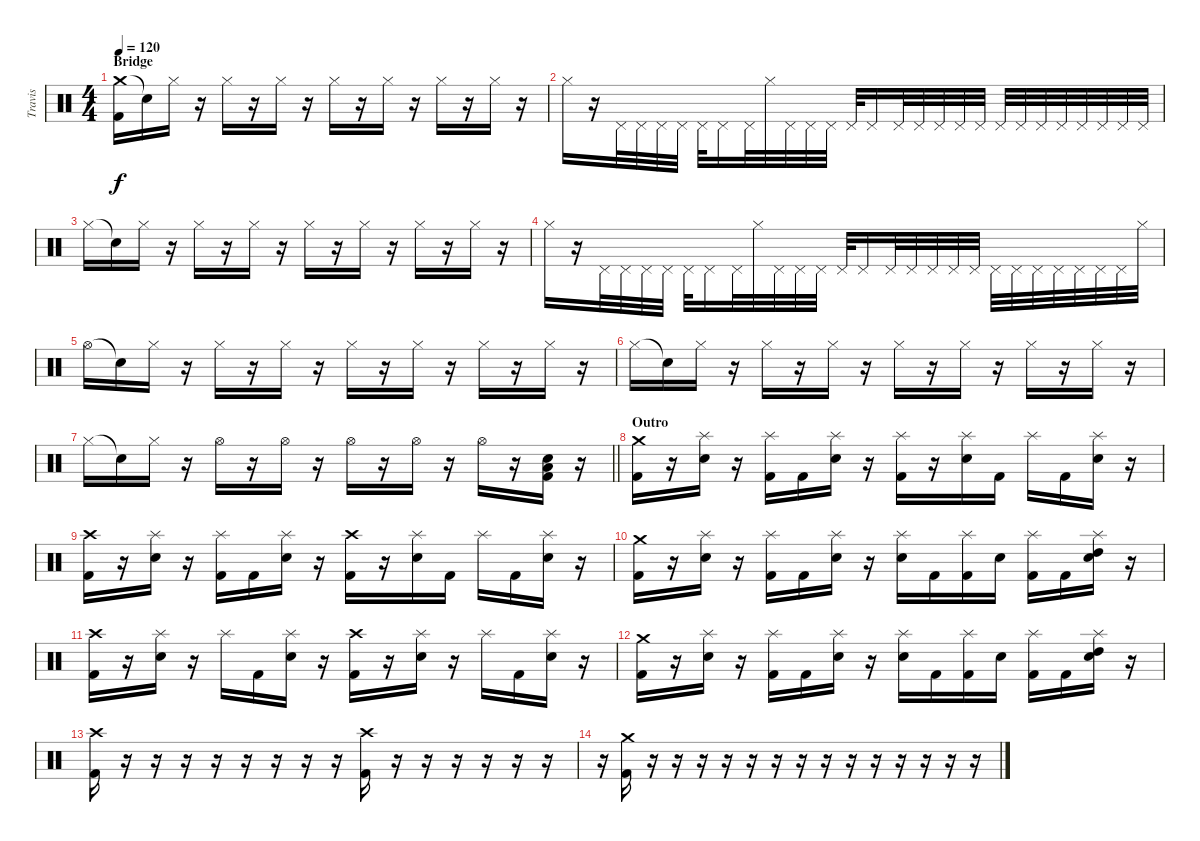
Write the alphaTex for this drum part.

\track ("Travis" "Travis") {instrument percussion}
\staff {score}
\articulation defaults
\ts (4 4)
\section ("" "Bridge")
\tempo 120
\clef neutral
\ks c
("Crash medium (hit)" "Kick (hit) 2").16{dy f} "Snare (hit)"{t}.16 "Hi-Hat (closed)".16 r.16 "Hi-Hat (closed)".16 r.16 "Hi-Hat (closed)".16 r.16 "Hi-Hat (closed)".16 r.16 "Hi-Hat (closed)".16 r.16 "Hi-Hat (closed)".16 r.16 "Hi-Hat (closed)".16 r.16 |
"Hi-Hat (closed)".16 r.16 "Pedal Hi-Hat (hit)".32 "Pedal Hi-Hat (hit)".32 "Pedal Hi-Hat (hit)".32 "Pedal Hi-Hat (hit)".32 "Pedal Hi-Hat (hit)".32 "Pedal Hi-Hat (hit)".16 "Pedal Hi-Hat (hit)".32 "Hi-Hat (closed)".32 "Pedal Hi-Hat (hit)".32 "Pedal Hi-Hat (hit)".32 "Pedal Hi-Hat (hit)".32 "Pedal Hi-Hat (hit)".32 "Pedal Hi-Hat (hit)".16 "Pedal Hi-Hat (hit)".32 "Pedal Hi-Hat (hit)".32 "Pedal Hi-Hat (hit)".32 "Pedal Hi-Hat (hit)".32 "Pedal Hi-Hat (hit)".32 "Pedal Hi-Hat (hit)".32 "Pedal Hi-Hat (hit)".32 "Pedal Hi-Hat (hit)".32 "Pedal Hi-Hat (hit)".32 "Pedal Hi-Hat (hit)".32 "Pedal Hi-Hat (hit)".32 "Pedal Hi-Hat (hit)".32 "Pedal Hi-Hat (hit)".32 |
"Hi-Hat (closed)".16 "Snare (hit)"{t}.16 "Hi-Hat (closed)".16 r.16 "Hi-Hat (closed)".16 r.16 "Hi-Hat (closed)".16 r.16 "Hi-Hat (closed)".16 r.16 "Hi-Hat (closed)".16 r.16 "Hi-Hat (closed)".16 r.16 "Hi-Hat (closed)".16 r.16 |
"Hi-Hat (closed)".16 r.16 "Pedal Hi-Hat (hit)".32 "Pedal Hi-Hat (hit)".32 "Pedal Hi-Hat (hit)".32 "Pedal Hi-Hat (hit)".32 "Pedal Hi-Hat (hit)".32 "Pedal Hi-Hat (hit)".16 "Pedal Hi-Hat (hit)".32 "Hi-Hat (closed)".32 "Pedal Hi-Hat (hit)".32 "Pedal Hi-Hat (hit)".32 "Pedal Hi-Hat (hit)".32 "Pedal Hi-Hat (hit)".32 "Pedal Hi-Hat (hit)".16 "Pedal Hi-Hat (hit)".32 "Pedal Hi-Hat (hit)".32 "Pedal Hi-Hat (hit)".32 "Pedal Hi-Hat (hit)".32 "Pedal Hi-Hat (hit)".32 "Pedal Hi-Hat (hit)".32 "Pedal Hi-Hat (hit)".32 "Pedal Hi-Hat (hit)".32 "Pedal Hi-Hat (hit)".32 "Pedal Hi-Hat (hit)".32 "Pedal Hi-Hat (hit)".32 "Pedal Hi-Hat (hit)".32 "Hi-Hat (closed)".32 |
"Hi-Hat (open)".16 "Snare (hit)"{t}.16 "Hi-Hat (closed)".16 r.16 "Hi-Hat (closed)".16 r.16 "Hi-Hat (closed)".16 r.16 "Hi-Hat (closed)".16 r.16 "Hi-Hat (closed)".16 r.16 "Hi-Hat (closed)".16 r.16 "Hi-Hat (closed)".16 r.16 |
"Hi-Hat (closed)".16 "Snare (hit)"{t}.16 "Hi-Hat (closed)".16 r.16 "Hi-Hat (closed)".16 r.16 "Hi-Hat (closed)".16 r.16 "Hi-Hat (closed)".16 r.16 "Hi-Hat (closed)".16 r.16 "Hi-Hat (closed)".16 r.16 "Hi-Hat (closed)".16 r.16 |
\barLineRight lightlight "Hi-Hat (closed)".16 "Snare (hit)"{t}.16 "Hi-Hat (closed)".16
r.16 "Hi-Hat (open)".16 r.16 "Hi-Hat (open)".16 r.16 "Hi-Hat (open)".16 r.16 "Hi-Hat (open)".16 r.16 "Hi-Hat (open)".16 r.16 ("Low Floor Tom (hit)" "Electric Snare (hit)" "Kick (hit) 2").16 r.16 |
\section ("" "Outro")
("Crash medium (hit)" "Kick (hit) 2").16 r.16 ("Splash (hit)" "Electric Snare (hit)").16 r.16 ("Splash (hit)" "Kick (hit) 2").16 "Kick (hit) 2".16 ("Splash (hit)" "Electric Snare (hit)").16 r.16 ("Splash (hit)" "Kick (hit) 2").16 r.16 ("Splash (hit)" "Electric Snare (hit)").16 "Kick (hit) 2".16 "Splash (hit)".16 "Kick (hit) 2".16 ("Splash (hit)" "Electric Snare (hit)").16 r.16 |
("Crash high (hit)" "Kick (hit) 2").16 r.16 ("Splash (hit)" "Electric Snare (hit)").16 r.16 ("Splash (hit)" "Kick (hit) 2").16 "Kick (hit) 2".16 ("Splash (hit)" "Electric Snare (hit)").16 r.16 ("Crash high (hit)" "Kick (hit) 2").16 r.16 ("Splash (hit)" "Electric Snare (hit)").16 "Kick (hit) 2".16 "Splash (hit)".16 "Kick (hit) 2".16 ("Splash (hit)" "Electric Snare (hit)").16 r.16 |
("Crash medium (hit)" "Kick (hit) 2").16 r.16 ("Splash (hit)" "Electric Snare (hit)").16 r.16 ("Splash (hit)" "Kick (hit) 2").16 "Kick (hit) 2".16 ("Splash (hit)" "Electric Snare (hit)").16 r.16 ("Splash (hit)" "Electric Snare (hit)").16 "Kick (hit) 2".16 ("Splash (hit)" "Kick (hit) 2").16 "Electric Snare (hit)".16 ("Splash (hit)" "Kick (hit) 2").16 "Kick (hit) 2".16 ("Splash (hit)" "High Tom (hit)" "Electric Snare (hit)").16 r.16 |
("Crash high (hit)" "Kick (hit) 2").16 r.16 ("Splash (hit)" "Electric Snare (hit)").16 r.16 "Splash (hit)".16 "Kick (hit) 2".16 ("Splash (hit)" "Electric Snare (hit)").16 r.16 ("Crash high (hit)" "Kick (hit) 2").16 r.16 ("Splash (hit)" "Electric Snare (hit)").16 r.16 "Splash (hit)".16 "Kick (hit) 2".16 ("Splash (hit)" "Electric Snare (hit)").16 r.16 |
("Crash medium (hit)" "Kick (hit) 2").16 r.16 ("Splash (hit)" "Electric Snare (hit)").16 r.16 ("Splash (hit)" "Kick (hit) 2").16 "Kick (hit) 2".16 ("Splash (hit)" "Electric Snare (hit)").16 r.16 ("Splash (hit)" "Electric Snare (hit)").16 "Kick (hit) 2".16 ("Splash (hit)" "Kick (hit) 2").16 "Electric Snare (hit)".16 ("Splash (hit)" "Kick (hit) 2").16 "Kick (hit) 2".16 ("Splash (hit)" "High Tom (hit)" "Electric Snare (hit)").16 r.16 |
("Crash high (hit)" "Kick (hit) 2").16 r.16 r.16 r.16 r.16 r.16 r.16 r.16 r.16 ("Crash high (hit)" "Kick (hit) 2").16 r.16 r.16 r.16 r.16 r.16 r.16 |
r.16 ("Crash medium (hit)" "Kick (hit) 2").16 r.16 r.16 r.16 r.16 r.16 r.16 r.16 r.16 r.16 r.16 r.16 r.16 r.16 r.16
